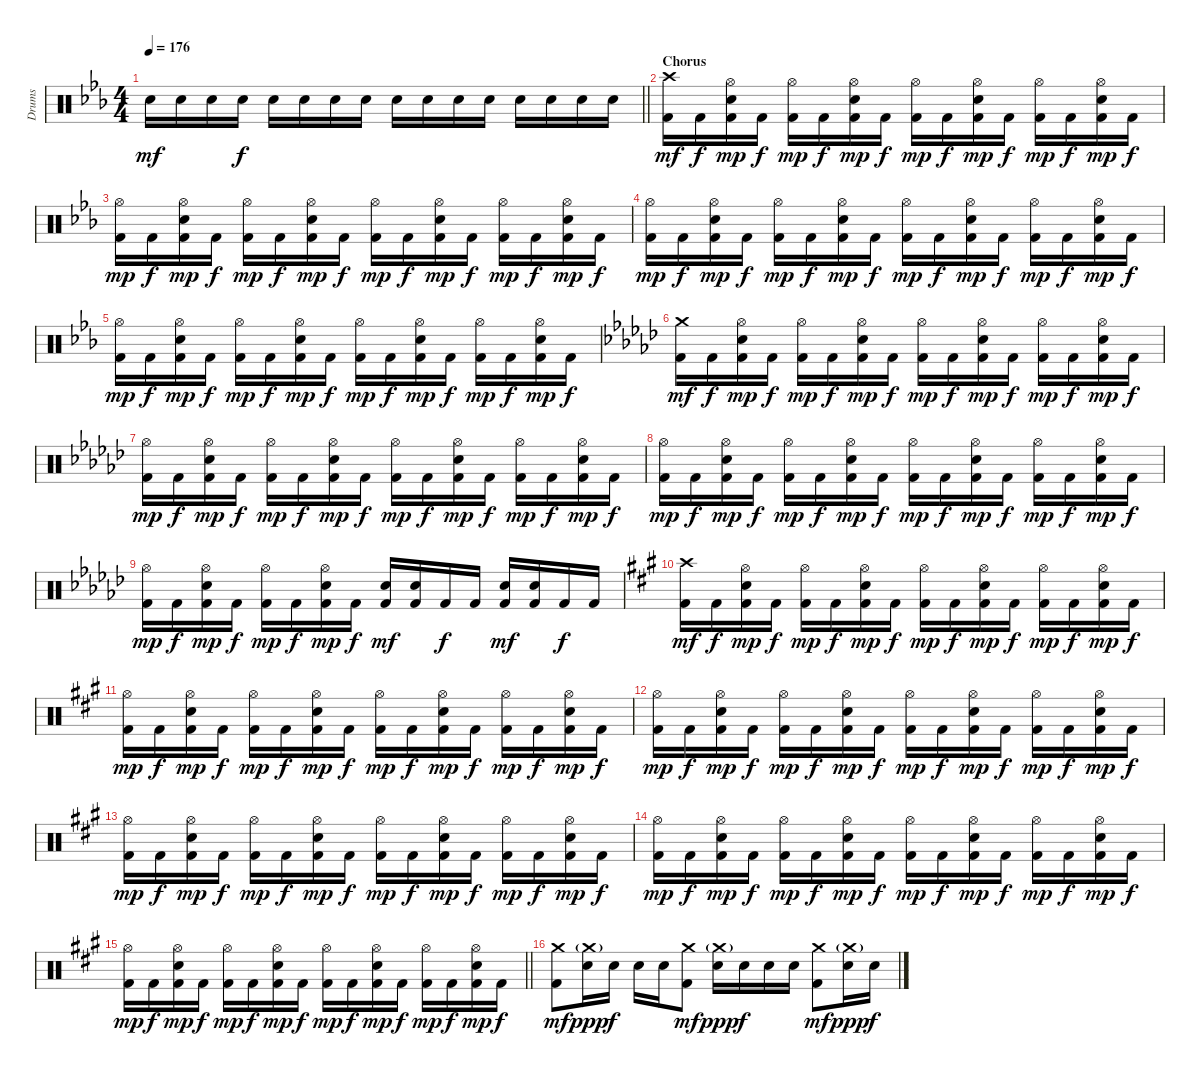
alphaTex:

\track ("Drums" "Drums") {instrument percussion}
\staff {score}
\articulation defaults
\ts (4 4)
\tempo 176
\clef neutral
\barLineRight lightlight
\ks cminor "Electric Snare (hit)".16{dy mf} "Electric Snare (hit)".16 "Electric Snare (hit)".16 "Electric Snare (hit)".16{dy f} "Electric Snare (hit)".16 "Electric Snare (hit)".16 "Electric Snare (hit)".16 "Electric Snare (hit)".16 "Electric Snare (hit)".16 "Electric Snare (hit)".16 "Electric Snare (hit)".16 "Electric Snare (hit)".16 "Electric Snare (hit)".16 "Electric Snare (hit)".16 "Electric Snare (hit)".16 "Electric Snare (hit)".16
|
\section ("" "Chorus")
("Crash high (hit)" "Kick (hit) 2").16{dy mf} "Kick (hit) 2".16{dy f} ("Hi-Hat (open)" "Electric Snare (hit)" "Kick (hit) 2").16{dy mp} "Kick (hit) 2".16{dy f} ("Hi-Hat (open)" "Kick (hit) 2").16{dy mp} "Kick (hit) 2".16{dy f} ("Hi-Hat (open)" "Electric Snare (hit)" "Kick (hit) 2").16{dy mp} "Kick (hit) 2".16{dy f} ("Hi-Hat (open)" "Kick (hit) 2").16{dy mp} "Kick (hit) 2".16{dy f} ("Hi-Hat (open)" "Electric Snare (hit)" "Kick (hit) 2").16{dy mp} "Kick (hit) 2".16{dy f} ("Hi-Hat (open)" "Kick (hit) 2").16{dy mp} "Kick (hit) 2".16{dy f} ("Hi-Hat (open)" "Electric Snare (hit)" "Kick (hit) 2").16{dy mp} "Kick (hit) 2".16{dy f} |
("Hi-Hat (open)" "Kick (hit) 2").16{dy mp} "Kick (hit) 2".16{dy f} ("Hi-Hat (open)" "Electric Snare (hit)" "Kick (hit) 2").16{dy mp} "Kick (hit) 2".16{dy f} ("Hi-Hat (open)" "Kick (hit) 2").16{dy mp} "Kick (hit) 2".16{dy f} ("Hi-Hat (open)" "Electric Snare (hit)" "Kick (hit) 2").16{dy mp} "Kick (hit) 2".16{dy f} ("Hi-Hat (open)" "Kick (hit) 2").16{dy mp} "Kick (hit) 2".16{dy f} ("Hi-Hat (open)" "Electric Snare (hit)" "Kick (hit) 2").16{dy mp} "Kick (hit) 2".16{dy f} ("Hi-Hat (open)" "Kick (hit) 2").16{dy mp} "Kick (hit) 2".16{dy f} ("Hi-Hat (open)" "Electric Snare (hit)" "Kick (hit) 2").16{dy mp} "Kick (hit) 2".16{dy f} |
("Hi-Hat (open)" "Kick (hit) 2").16{dy mp} "Kick (hit) 2".16{dy f} ("Hi-Hat (open)" "Electric Snare (hit)" "Kick (hit) 2").16{dy mp} "Kick (hit) 2".16{dy f} ("Hi-Hat (open)" "Kick (hit) 2").16{dy mp} "Kick (hit) 2".16{dy f} ("Hi-Hat (open)" "Electric Snare (hit)" "Kick (hit) 2").16{dy mp} "Kick (hit) 2".16{dy f} ("Hi-Hat (open)" "Kick (hit) 2").16{dy mp} "Kick (hit) 2".16{dy f} ("Hi-Hat (open)" "Electric Snare (hit)" "Kick (hit) 2").16{dy mp} "Kick (hit) 2".16{dy f} ("Hi-Hat (open)" "Kick (hit) 2").16{dy mp} "Kick (hit) 2".16{dy f} ("Hi-Hat (open)" "Electric Snare (hit)" "Kick (hit) 2").16{dy mp} "Kick (hit) 2".16{dy f} |
("Hi-Hat (open)" "Kick (hit) 2").16{dy mp} "Kick (hit) 2".16{dy f} ("Hi-Hat (open)" "Electric Snare (hit)" "Kick (hit) 2").16{dy mp} "Kick (hit) 2".16{dy f} ("Hi-Hat (open)" "Kick (hit) 2").16{dy mp} "Kick (hit) 2".16{dy f} ("Hi-Hat (open)" "Electric Snare (hit)" "Kick (hit) 2").16{dy mp} "Kick (hit) 2".16{dy f} ("Hi-Hat (open)" "Kick (hit) 2").16{dy mp} "Kick (hit) 2".16{dy f} ("Hi-Hat (open)" "Electric Snare (hit)" "Kick (hit) 2").16{dy mp} "Kick (hit) 2".16{dy f} ("Hi-Hat (open)" "Kick (hit) 2").16{dy mp} "Kick (hit) 2".16{dy f} ("Hi-Hat (open)" "Electric Snare (hit)" "Kick (hit) 2").16{dy mp} "Kick (hit) 2".16{dy f} |
\ks ebminor
("Crash medium (hit)" "Kick (hit) 2").16{dy mf} "Kick (hit) 2".16{dy f} ("Hi-Hat (open)" "Electric Snare (hit)" "Kick (hit) 2").16{dy mp} "Kick (hit) 2".16{dy f} ("Hi-Hat (open)" "Kick (hit) 2").16{dy mp} "Kick (hit) 2".16{dy f} ("Hi-Hat (open)" "Electric Snare (hit)" "Kick (hit) 2").16{dy mp} "Kick (hit) 2".16{dy f} ("Hi-Hat (open)" "Kick (hit) 2").16{dy mp} "Kick (hit) 2".16{dy f} ("Hi-Hat (open)" "Electric Snare (hit)" "Kick (hit) 2").16{dy mp} "Kick (hit) 2".16{dy f} ("Hi-Hat (open)" "Kick (hit) 2").16{dy mp} "Kick (hit) 2".16{dy f} ("Hi-Hat (open)" "Electric Snare (hit)" "Kick (hit) 2").16{dy mp} "Kick (hit) 2".16{dy f} |
("Hi-Hat (open)" "Kick (hit) 2").16{dy mp} "Kick (hit) 2".16{dy f} ("Hi-Hat (open)" "Electric Snare (hit)" "Kick (hit) 2").16{dy mp} "Kick (hit) 2".16{dy f} ("Hi-Hat (open)" "Kick (hit) 2").16{dy mp} "Kick (hit) 2".16{dy f} ("Hi-Hat (open)" "Electric Snare (hit)" "Kick (hit) 2").16{dy mp} "Kick (hit) 2".16{dy f} ("Hi-Hat (open)" "Kick (hit) 2").16{dy mp} "Kick (hit) 2".16{dy f} ("Hi-Hat (open)" "Electric Snare (hit)" "Kick (hit) 2").16{dy mp} "Kick (hit) 2".16{dy f} ("Hi-Hat (open)" "Kick (hit) 2").16{dy mp} "Kick (hit) 2".16{dy f} ("Hi-Hat (open)" "Electric Snare (hit)" "Kick (hit) 2").16{dy mp} "Kick (hit) 2".16{dy f} |
("Hi-Hat (open)" "Kick (hit) 2").16{dy mp} "Kick (hit) 2".16{dy f} ("Hi-Hat (open)" "Electric Snare (hit)" "Kick (hit) 2").16{dy mp} "Kick (hit) 2".16{dy f} ("Hi-Hat (open)" "Kick (hit) 2").16{dy mp} "Kick (hit) 2".16{dy f} ("Hi-Hat (open)" "Electric Snare (hit)" "Kick (hit) 2").16{dy mp} "Kick (hit) 2".16{dy f} ("Hi-Hat (open)" "Kick (hit) 2").16{dy mp} "Kick (hit) 2".16{dy f} ("Hi-Hat (open)" "Electric Snare (hit)" "Kick (hit) 2").16{dy mp} "Kick (hit) 2".16{dy f} ("Hi-Hat (open)" "Kick (hit) 2").16{dy mp} "Kick (hit) 2".16{dy f} ("Hi-Hat (open)" "Electric Snare (hit)" "Kick (hit) 2").16{dy mp} "Kick (hit) 2".16{dy f} |
("Hi-Hat (open)" "Kick (hit) 2").16{dy mp} "Kick (hit) 2".16{dy f} ("Hi-Hat (open)" "Electric Snare (hit)" "Kick (hit) 2").16{dy mp} "Kick (hit) 2".16{dy f} ("Hi-Hat (open)" "Kick (hit) 2").16{dy mp} "Kick (hit) 2".16{dy f} ("Hi-Hat (open)" "Electric Snare (hit)" "Kick (hit) 2").16{dy mp} "Kick (hit) 2".16{dy f} ("Electric Snare (hit)" "Kick (hit) 2").16{dy mf} ("Electric Snare (hit)" "Kick (hit) 2").16 "Kick (hit) 2".16{dy f} "Kick (hit) 2".16 ("Electric Snare (hit)" "Kick (hit) 2").16{dy mf} ("Electric Snare (hit)" "Kick (hit) 2").16 "Kick (hit) 2".16{dy f} "Kick (hit) 2".16 |
\ks f#minor
("Crash high (hit)" "Kick (hit) 2").16{dy mf} "Kick (hit) 2".16{dy f} ("Hi-Hat (open)" "Electric Snare (hit)" "Kick (hit) 2").16{dy mp} "Kick (hit) 2".16{dy f} ("Hi-Hat (open)" "Kick (hit) 2").16{dy mp} "Kick (hit) 2".16{dy f} ("Hi-Hat (open)" "Electric Snare (hit)" "Kick (hit) 2").16{dy mp} "Kick (hit) 2".16{dy f} ("Hi-Hat (open)" "Kick (hit) 2").16{dy mp} "Kick (hit) 2".16{dy f} ("Hi-Hat (open)" "Electric Snare (hit)" "Kick (hit) 2").16{dy mp} "Kick (hit) 2".16{dy f} ("Hi-Hat (open)" "Kick (hit) 2").16{dy mp} "Kick (hit) 2".16{dy f} ("Hi-Hat (open)" "Electric Snare (hit)" "Kick (hit) 2").16{dy mp} "Kick (hit) 2".16{dy f} |
("Hi-Hat (open)" "Kick (hit) 2").16{dy mp} "Kick (hit) 2".16{dy f} ("Hi-Hat (open)" "Electric Snare (hit)" "Kick (hit) 2").16{dy mp} "Kick (hit) 2".16{dy f} ("Hi-Hat (open)" "Kick (hit) 2").16{dy mp} "Kick (hit) 2".16{dy f} ("Hi-Hat (open)" "Electric Snare (hit)" "Kick (hit) 2").16{dy mp} "Kick (hit) 2".16{dy f} ("Hi-Hat (open)" "Kick (hit) 2").16{dy mp} "Kick (hit) 2".16{dy f} ("Hi-Hat (open)" "Electric Snare (hit)" "Kick (hit) 2").16{dy mp} "Kick (hit) 2".16{dy f} ("Hi-Hat (open)" "Kick (hit) 2").16{dy mp} "Kick (hit) 2".16{dy f} ("Hi-Hat (open)" "Electric Snare (hit)" "Kick (hit) 2").16{dy mp} "Kick (hit) 2".16{dy f} |
("Hi-Hat (open)" "Kick (hit) 2").16{dy mp} "Kick (hit) 2".16{dy f} ("Hi-Hat (open)" "Electric Snare (hit)" "Kick (hit) 2").16{dy mp} "Kick (hit) 2".16{dy f} ("Hi-Hat (open)" "Kick (hit) 2").16{dy mp} "Kick (hit) 2".16{dy f} ("Hi-Hat (open)" "Electric Snare (hit)" "Kick (hit) 2").16{dy mp} "Kick (hit) 2".16{dy f} ("Hi-Hat (open)" "Kick (hit) 2").16{dy mp} "Kick (hit) 2".16{dy f} ("Hi-Hat (open)" "Electric Snare (hit)" "Kick (hit) 2").16{dy mp} "Kick (hit) 2".16{dy f} ("Hi-Hat (open)" "Kick (hit) 2").16{dy mp} "Kick (hit) 2".16{dy f} ("Hi-Hat (open)" "Electric Snare (hit)" "Kick (hit) 2").16{dy mp} "Kick (hit) 2".16{dy f} |
("Hi-Hat (open)" "Kick (hit) 2").16{dy mp} "Kick (hit) 2".16{dy f} ("Hi-Hat (open)" "Electric Snare (hit)" "Kick (hit) 2").16{dy mp} "Kick (hit) 2".16{dy f} ("Hi-Hat (open)" "Kick (hit) 2").16{dy mp} "Kick (hit) 2".16{dy f} ("Hi-Hat (open)" "Electric Snare (hit)" "Kick (hit) 2").16{dy mp} "Kick (hit) 2".16{dy f} ("Hi-Hat (open)" "Kick (hit) 2").16{dy mp} "Kick (hit) 2".16{dy f} ("Hi-Hat (open)" "Electric Snare (hit)" "Kick (hit) 2").16{dy mp} "Kick (hit) 2".16{dy f} ("Hi-Hat (open)" "Kick (hit) 2").16{dy mp} "Kick (hit) 2".16{dy f} ("Hi-Hat (open)" "Electric Snare (hit)" "Kick (hit) 2").16{dy mp} "Kick (hit) 2".16{dy f} |
("Hi-Hat (open)" "Kick (hit) 2").16{dy mp} "Kick (hit) 2".16{dy f} ("Hi-Hat (open)" "Electric Snare (hit)" "Kick (hit) 2").16{dy mp} "Kick (hit) 2".16{dy f} ("Hi-Hat (open)" "Kick (hit) 2").16{dy mp} "Kick (hit) 2".16{dy f} ("Hi-Hat (open)" "Electric Snare (hit)" "Kick (hit) 2").16{dy mp} "Kick (hit) 2".16{dy f} ("Hi-Hat (open)" "Kick (hit) 2").16{dy mp} "Kick (hit) 2".16{dy f} ("Hi-Hat (open)" "Electric Snare (hit)" "Kick (hit) 2").16{dy mp} "Kick (hit) 2".16{dy f} ("Hi-Hat (open)" "Kick (hit) 2").16{dy mp} "Kick (hit) 2".16{dy f} ("Hi-Hat (open)" "Electric Snare (hit)" "Kick (hit) 2").16{dy mp} "Kick (hit) 2".16{dy f} |
\barLineRight lightlight
("Hi-Hat (open)" "Kick (hit) 2").16{dy mp} "Kick (hit) 2".16{dy f} ("Hi-Hat (open)" "Electric Snare (hit)" "Kick (hit) 2").16{dy mp} "Kick (hit) 2".16{dy f} ("Hi-Hat (open)" "Kick (hit) 2").16{dy mp} "Kick (hit) 2".16{dy f} ("Hi-Hat (open)" "Electric Snare (hit)" "Kick (hit) 2").16{dy mp} "Kick (hit) 2".16{dy f} ("Hi-Hat (open)" "Kick (hit) 2").16{dy mp} "Kick (hit) 2".16{dy f} ("Hi-Hat (open)" "Electric Snare (hit)" "Kick (hit) 2").16{dy mp} "Kick (hit) 2".16{dy f} ("Hi-Hat (open)" "Kick (hit) 2").16{dy mp} "Kick (hit) 2".16{dy f} ("Hi-Hat (open)" "Electric Snare (hit)" "Kick (hit) 2").16{dy mp} "Kick (hit) 2".16{dy f} |
\section ("" "")
("Crash medium (hit)" "Kick (hit) 2").8{dy mf} ("Crash medium (hit)"{g} "Electric Snare (hit)").16{dy ppp} "Electric Snare (hit)".16{dy f} "Electric Snare (hit)".16 "Electric Snare (hit)".16 ("Crash medium (hit)" "Kick (hit) 2").8{dy mf} ("Crash medium (hit)"{g} "Electric Snare (hit)").16{dy ppp} "Electric Snare (hit)".16{dy f} "Electric Snare (hit)".16 "Electric Snare (hit)".16 ("Crash medium (hit)" "Kick (hit) 2").8{dy mf} ("Crash medium (hit)"{g} "Electric Snare (hit)").16{dy ppp} "Electric Snare (hit)".16{dy f}
